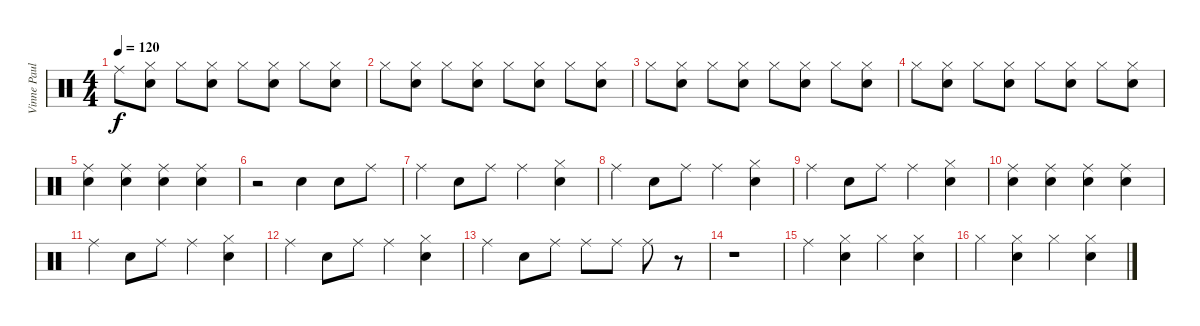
\track ("Vinne Paul cymbals and tom" "Vinne Paul") {instrument percussion}
\staff {score}
\articulation defaults
\ts (4 4)
\tempo 120
\clef neutral
\ks c "Ride (middle)".8{dy f}
("Hi-Hat (closed)" "Electric Snare (hit)").8 "Hi-Hat (closed)".8 ("Hi-Hat (closed)" "Electric Snare (hit)").8 "Hi-Hat (closed)".8 ("Hi-Hat (closed)" "Electric Snare (hit)").8 "Hi-Hat (closed)".8 ("Hi-Hat (closed)" "Electric Snare (hit)").8 |
"Hi-Hat (closed)".8 ("Hi-Hat (closed)" "Electric Snare (hit)").8 "Hi-Hat (closed)".8 ("Hi-Hat (closed)" "Electric Snare (hit)").8 "Hi-Hat (closed)".8 ("Hi-Hat (closed)" "Electric Snare (hit)").8 "Hi-Hat (closed)".8 ("Hi-Hat (closed)" "Electric Snare (hit)").8 |
"Hi-Hat (closed)".8 ("Hi-Hat (closed)" "Electric Snare (hit)").8 "Hi-Hat (closed)".8 ("Hi-Hat (closed)" "Electric Snare (hit)").8 "Hi-Hat (closed)".8 ("Hi-Hat (closed)" "Electric Snare (hit)").8 "Hi-Hat (closed)".8 ("Hi-Hat (closed)" "Electric Snare (hit)").8 |
"Hi-Hat (closed)".8 ("Hi-Hat (closed)" "Electric Snare (hit)").8 "Hi-Hat (closed)".8 ("Hi-Hat (closed)" "Electric Snare (hit)").8 "Hi-Hat (closed)".8 ("Hi-Hat (closed)" "Electric Snare (hit)").8 "Hi-Hat (closed)".8 ("Hi-Hat (closed)" "Electric Snare (hit)").8 |
("Ride (middle)" "Electric Snare (hit)").4 ("Ride (middle)" "Electric Snare (hit)").4 ("Ride (middle)" "Electric Snare (hit)").4 ("Ride (middle)" "Electric Snare (hit)").4 |
r.2 "Electric Snare (hit)".4 "Electric Snare (hit)".8 "Ride (middle)".8 |
"Ride (middle)".4 "Electric Snare (hit)".8 "Ride (middle)".8 "Ride (middle)".4 ("Hi-Hat (closed)" "Electric Snare (hit)").4 |
"Ride (middle)".4 "Electric Snare (hit)".8 "Ride (middle)".8 "Ride (middle)".4 ("Hi-Hat (closed)" "Electric Snare (hit)").4 |
"Ride (middle)".4 "Electric Snare (hit)".8 "Ride (middle)".8 "Ride (middle)".4 ("Hi-Hat (closed)" "Electric Snare (hit)").4 |
("Ride (middle)" "Electric Snare (hit)").4 ("Ride (middle)" "Electric Snare (hit)").4 ("Ride (middle)" "Electric Snare (hit)").4 ("Ride (middle)" "Electric Snare (hit)").4 |
"Ride (middle)".4 "Electric Snare (hit)".8 "Ride (middle)".8 "Ride (middle)".4 ("Hi-Hat (closed)" "Electric Snare (hit)").4 |
"Ride (middle)".4 "Electric Snare (hit)".8 "Ride (middle)".8 "Ride (middle)".4 ("Hi-Hat (closed)" "Electric Snare (hit)").4 |
"Ride (middle)".4 "Electric Snare (hit)".8 "Ride (middle)".8 "Ride (middle)".8 "Ride (middle)".8 "Ride (middle)".8 r.8 |
r.1 |
"Ride (middle)".4 ("Hi-Hat (closed)" "Electric Snare (hit)").4 "Hi-Hat (closed)".4 ("Hi-Hat (closed)" "Electric Snare (hit)").4 |
"Hi-Hat (closed)".4 ("Hi-Hat (closed)" "Electric Snare (hit)").4 "Hi-Hat (closed)".4 ("Hi-Hat (closed)" "Electric Snare (hit)").4
